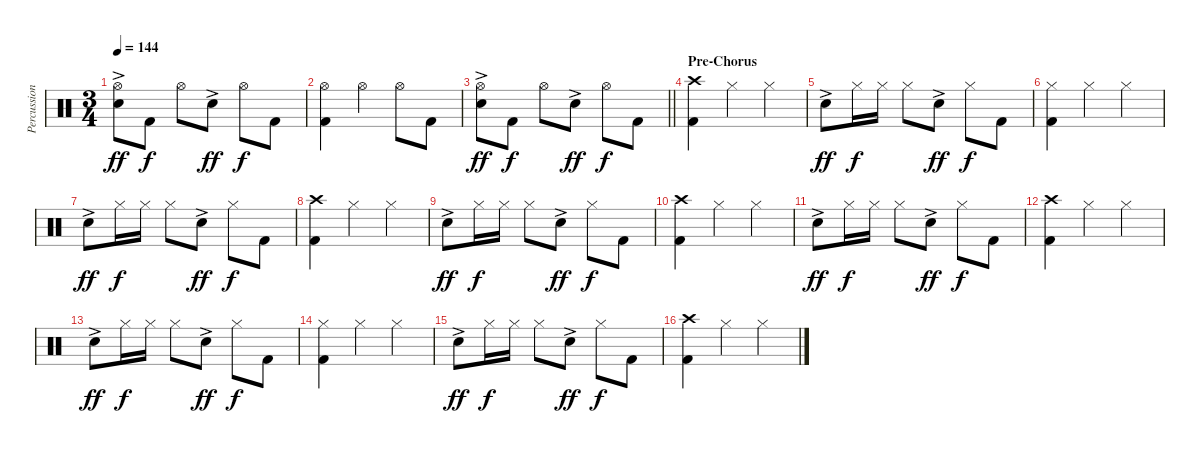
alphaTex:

\track ("Percussion" "Percussion") {instrument percussion}
\staff {score}
\articulation defaults
\ts (3 4)
\tempo 144
\clef neutral
\ks c
("Hi-Hat (open)" "Electric Snare (hit)"{ac}).8{dy ff} "Kick (hit) 2".8{dy f} "Hi-Hat (open)".8 "Electric Snare (hit)"{ac}.8{dy ff} "Hi-Hat (open)".8{dy f} "Kick (hit) 2".8 |
("Hi-Hat (open)" "Kick (hit) 2").4 "Hi-Hat (open)".4 "Hi-Hat (open)".8 "Kick (hit) 2".8 |
\barLineRight lightlight
("Hi-Hat (open)" "Electric Snare (hit)"{ac}).8{dy ff} "Kick (hit) 2".8{dy f} "Hi-Hat (open)".8 "Electric Snare (hit)"{ac}.8{dy ff} "Hi-Hat (open)".8{dy f} "Kick (hit) 2".8 |
\section ("" "Pre-Chorus")
("Crash high (hit)" "Kick (hit) 2").4 "Hi-Hat (closed)".4 "Hi-Hat (closed)".4 |
"Electric Snare (hit)"{ac}.8{dy ff} "Hi-Hat (closed)".16{dy f} "Hi-Hat (closed)".16 "Hi-Hat (closed)".8 "Electric Snare (hit)"{ac}.8{dy ff} "Hi-Hat (closed)".8{dy f} "Kick (hit) 2".8 |
("Hi-Hat (closed)" "Kick (hit) 2").4 "Hi-Hat (closed)".4 "Hi-Hat (closed)".4 |
"Electric Snare (hit)"{ac}.8{dy ff} "Hi-Hat (closed)".16{dy f} "Hi-Hat (closed)".16 "Hi-Hat (closed)".8 "Electric Snare (hit)"{ac}.8{dy ff} "Hi-Hat (closed)".8{dy f} "Kick (hit) 2".8 |
("Crash high (hit)" "Kick (hit) 2").4 "Hi-Hat (closed)".4 "Hi-Hat (closed)".4 |
"Electric Snare (hit)"{ac}.8{dy ff} "Hi-Hat (closed)".16{dy f} "Hi-Hat (closed)".16 "Hi-Hat (closed)".8 "Electric Snare (hit)"{ac}.8{dy ff} "Hi-Hat (closed)".8{dy f} "Kick (hit) 2".8 |
("Crash high (hit)" "Kick (hit) 2").4 "Hi-Hat (closed)".4 "Hi-Hat (closed)".4 |
"Electric Snare (hit)"{ac}.8{dy ff} "Hi-Hat (closed)".16{dy f} "Hi-Hat (closed)".16 "Hi-Hat (closed)".8 "Electric Snare (hit)"{ac}.8{dy ff} "Hi-Hat (closed)".8{dy f} "Kick (hit) 2".8 |
("Crash high (hit)" "Kick (hit) 2").4 "Hi-Hat (closed)".4 "Hi-Hat (closed)".4 |
"Electric Snare (hit)"{ac}.8{dy ff} "Hi-Hat (closed)".16{dy f} "Hi-Hat (closed)".16 "Hi-Hat (closed)".8 "Electric Snare (hit)"{ac}.8{dy ff} "Hi-Hat (closed)".8{dy f} "Kick (hit) 2".8 |
("Hi-Hat (closed)" "Kick (hit) 2").4 "Hi-Hat (closed)".4 "Hi-Hat (closed)".4 |
"Electric Snare (hit)"{ac}.8{dy ff} "Hi-Hat (closed)".16{dy f} "Hi-Hat (closed)".16 "Hi-Hat (closed)".8 "Electric Snare (hit)"{ac}.8{dy ff} "Hi-Hat (closed)".8{dy f} "Kick (hit) 2".8 |
("Crash high (hit)" "Kick (hit) 2").4 "Hi-Hat (closed)".4 "Hi-Hat (closed)".4
